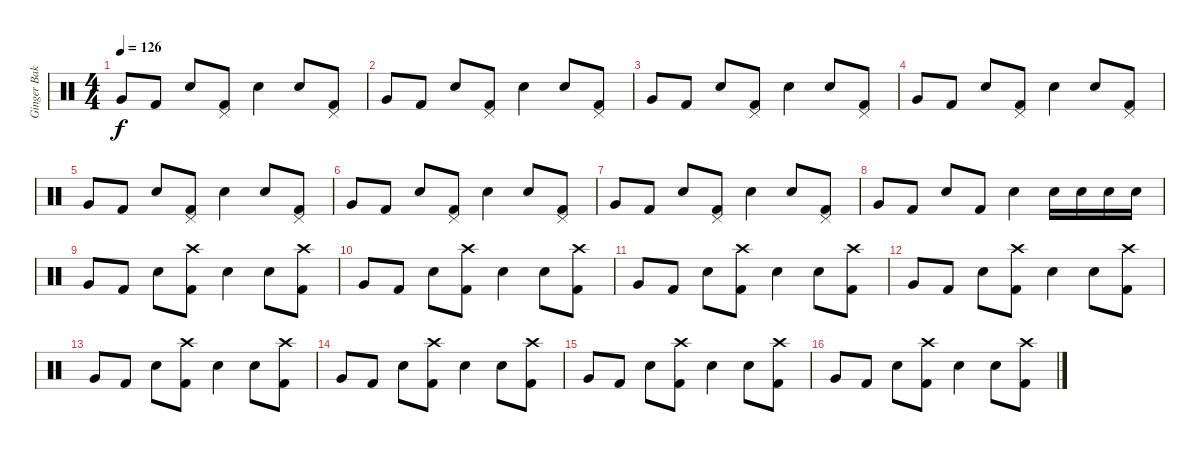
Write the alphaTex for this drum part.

\track ("Ginger Baker" "Ginger Bak") {instrument percussion}
\staff {score}
\articulation defaults
\ts (4 4)
\tempo 126
\clef neutral
\ks c "Very Low Tom (hit)".8{dy f} "Kick (hit) 2".8 "Snare (hit) 2".8
("Pedal Hi-Hat (hit)" "Kick (hit) 2").8 "Snare (hit) 2".4 "Snare (hit) 2".8 ("Pedal Hi-Hat (hit)" "Kick (hit) 2").8 |
"Very Low Tom (hit)".8 "Kick (hit) 2".8 "Snare (hit) 2".8 ("Pedal Hi-Hat (hit)" "Kick (hit) 2").8 "Snare (hit) 2".4 "Snare (hit) 2".8 ("Pedal Hi-Hat (hit)" "Kick (hit) 2").8 |
"Very Low Tom (hit)".8 "Kick (hit) 2".8 "Snare (hit) 2".8 ("Pedal Hi-Hat (hit)" "Kick (hit) 2").8 "Snare (hit) 2".4 "Snare (hit) 2".8 ("Pedal Hi-Hat (hit)" "Kick (hit) 2").8 |
"Very Low Tom (hit)".8 "Kick (hit) 2".8 "Snare (hit) 2".8 ("Pedal Hi-Hat (hit)" "Kick (hit) 2").8 "Snare (hit) 2".4 "Snare (hit) 2".8 ("Pedal Hi-Hat (hit)" "Kick (hit) 2").8 |
"Very Low Tom (hit)".8 "Kick (hit) 2".8 "Snare (hit) 2".8 ("Pedal Hi-Hat (hit)" "Kick (hit) 2").8 "Snare (hit) 2".4 "Snare (hit) 2".8 ("Pedal Hi-Hat (hit)" "Kick (hit) 2").8 |
"Very Low Tom (hit)".8 "Kick (hit) 2".8 "Snare (hit) 2".8 ("Pedal Hi-Hat (hit)" "Kick (hit) 2").8 "Snare (hit) 2".4 "Snare (hit) 2".8 ("Pedal Hi-Hat (hit)" "Kick (hit) 2").8 |
"Very Low Tom (hit)".8 "Kick (hit) 2".8 "Snare (hit) 2".8 ("Pedal Hi-Hat (hit)" "Kick (hit) 2").8 "Snare (hit) 2".4 "Snare (hit) 2".8 ("Pedal Hi-Hat (hit)" "Kick (hit) 2").8 |
"Very Low Tom (hit)".8 "Kick (hit) 2".8 "Snare (hit) 2".8 "Kick (hit) 2".8 "Snare (hit) 2".4 "Electric Snare (hit)".16 "Electric Snare (hit)".16 "Electric Snare (hit)".16 "Electric Snare (hit)".16 |
"Very Low Tom (hit)".8 "Kick (hit) 2".8 "Snare (hit) 2".8 ("Crash high (hit)" "Kick (hit) 2").8 "Snare (hit) 2".4 "Snare (hit) 2".8 ("Crash high (hit)" "Kick (hit) 2").8 |
"Very Low Tom (hit)".8 "Kick (hit) 2".8 "Snare (hit) 2".8 ("Crash high (hit)" "Kick (hit) 2").8 "Snare (hit) 2".4 "Snare (hit) 2".8 ("Crash high (hit)" "Kick (hit) 2").8 |
"Very Low Tom (hit)".8 "Kick (hit) 2".8 "Snare (hit) 2".8 ("Crash high (hit)" "Kick (hit) 2").8 "Snare (hit) 2".4 "Snare (hit) 2".8 ("Crash high (hit)" "Kick (hit) 2").8 |
"Very Low Tom (hit)".8 "Kick (hit) 2".8 "Snare (hit) 2".8 ("Crash high (hit)" "Kick (hit) 2").8 "Snare (hit) 2".4 "Snare (hit) 2".8 ("Crash high (hit)" "Kick (hit) 2").8 |
"Very Low Tom (hit)".8 "Kick (hit) 2".8 "Snare (hit) 2".8 ("Crash high (hit)" "Kick (hit) 2").8 "Snare (hit) 2".4 "Snare (hit) 2".8 ("Crash high (hit)" "Kick (hit) 2").8 |
"Very Low Tom (hit)".8 "Kick (hit) 2".8 "Snare (hit) 2".8 ("Crash high (hit)" "Kick (hit) 2").8 "Snare (hit) 2".4 "Snare (hit) 2".8 ("Crash high (hit)" "Kick (hit) 2").8 |
"Very Low Tom (hit)".8 "Kick (hit) 2".8 "Snare (hit) 2".8 ("Crash high (hit)" "Kick (hit) 2").8 "Snare (hit) 2".4 "Snare (hit) 2".8 ("Crash high (hit)" "Kick (hit) 2").8 |
"Very Low Tom (hit)".8 "Kick (hit) 2".8 "Snare (hit) 2".8 ("Crash high (hit)" "Kick (hit) 2").8 "Snare (hit) 2".4 "Snare (hit) 2".8 ("Crash high (hit)" "Kick (hit) 2").8
